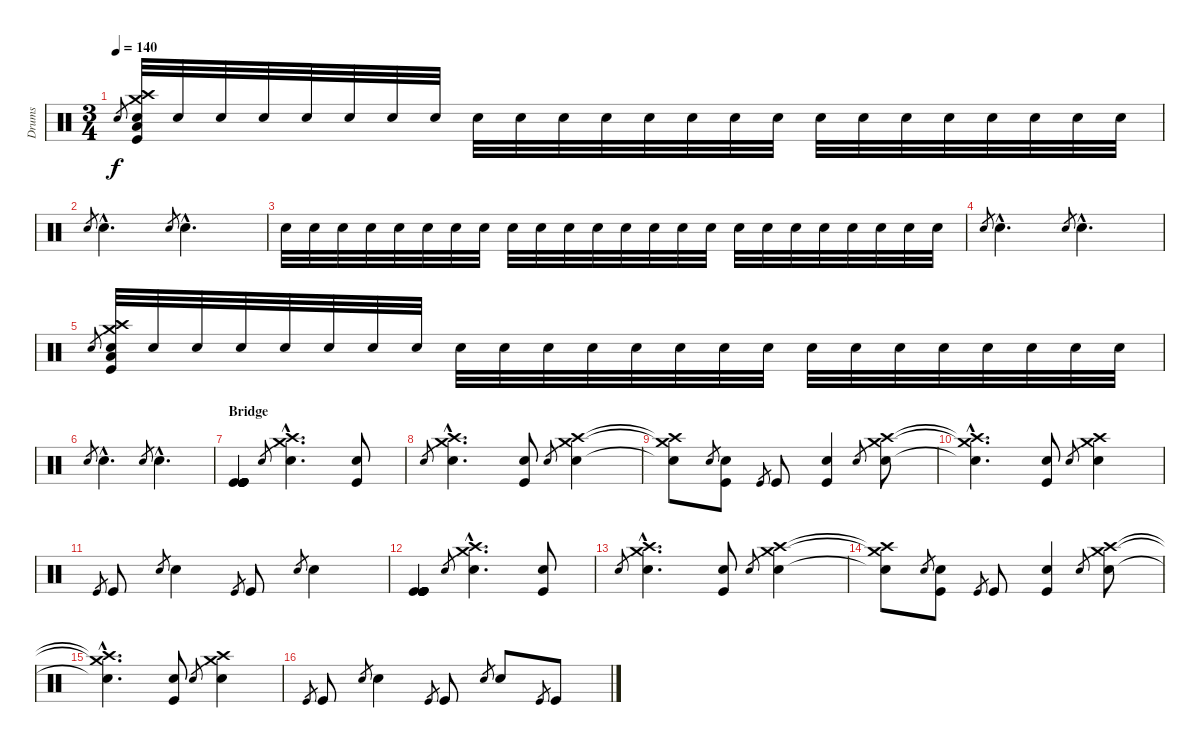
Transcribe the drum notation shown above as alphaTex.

\track ("Drums" "Drums") {instrument percussion}
\staff {score}
\articulation defaults
\ts (3 4)
\tempo 140
\clef neutral
\ks c "Snare (hit) 2".8{gr dy f}
("Crash high (hit)" "Crash medium (hit)" "Snare (hit) 2" "Low Floor Tom (hit)" "Kick (hit)").32 "Snare (hit) 2".32 "Snare (hit) 2".32 "Snare (hit) 2".32 "Snare (hit) 2".32 "Snare (hit) 2".32 "Snare (hit) 2".32 "Snare (hit) 2".32 "Snare (hit) 2".32 "Snare (hit) 2".32 "Snare (hit) 2".32 "Snare (hit) 2".32 "Snare (hit) 2".32 "Snare (hit) 2".32 "Snare (hit) 2".32 "Snare (hit) 2".32 "Snare (hit) 2".32 "Snare (hit) 2".32 "Snare (hit) 2".32 "Snare (hit) 2".32 "Snare (hit) 2".32 "Snare (hit) 2".32 "Snare (hit) 2".32 "Snare (hit) 2".32 |
"Snare (hit) 2".8{gr} "Snare (hit) 2"{hac}.4{d} "Snare (hit) 2".8{gr} "Snare (hit) 2"{hac}.4{d} |
"Snare (hit) 2".32 "Snare (hit) 2".32 "Snare (hit) 2".32 "Snare (hit) 2".32 "Snare (hit) 2".32 "Snare (hit) 2".32 "Snare (hit) 2".32 "Snare (hit) 2".32 "Snare (hit) 2".32 "Snare (hit) 2".32 "Snare (hit) 2".32 "Snare (hit) 2".32 "Snare (hit) 2".32 "Snare (hit) 2".32 "Snare (hit) 2".32 "Snare (hit) 2".32 "Snare (hit) 2".32 "Snare (hit) 2".32 "Snare (hit) 2".32 "Snare (hit) 2".32 "Snare (hit) 2".32 "Snare (hit) 2".32 "Snare (hit) 2".32 "Snare (hit) 2".32 |
"Snare (hit) 2".8{gr} "Snare (hit) 2"{hac}.4{d} "Snare (hit) 2".8{gr} "Snare (hit) 2"{hac}.4{d} |
"Snare (hit) 2".8{gr} ("Crash high (hit)" "Crash medium (hit)" "Snare (hit) 2" "Low Floor Tom (hit)" "Kick (hit)").32 "Snare (hit) 2".32 "Snare (hit) 2".32 "Snare (hit) 2".32 "Snare (hit) 2".32 "Snare (hit) 2".32 "Snare (hit) 2".32 "Snare (hit) 2".32 "Snare (hit) 2".32 "Snare (hit) 2".32 "Snare (hit) 2".32 "Snare (hit) 2".32 "Snare (hit) 2".32 "Snare (hit) 2".32 "Snare (hit) 2".32 "Snare (hit) 2".32 "Snare (hit) 2".32 "Snare (hit) 2".32 "Snare (hit) 2".32 "Snare (hit) 2".32 "Snare (hit) 2".32 "Snare (hit) 2".32 "Snare (hit) 2".32 "Snare (hit) 2".32 |
"Snare (hit) 2".8{gr} "Snare (hit) 2"{hac}.4{d} "Snare (hit) 2".8{gr} "Snare (hit) 2"{hac}.4{d} |
\section ("" "Bridge")
("Kick (hit)" "Kick (hit)" "Kick (hit)" "Kick (hit)" "Kick (hit)" "Kick (hit)").4{volume 16} "Snare (hit) 2".8{gr} ("Crash high (hit)"{hac} "Crash medium (hit)"{hac} "Snare (hit) 2"{hac}).4{d} ("Snare (hit) 2" "Kick (hit)").8 |
"Snare (hit) 2".8{gr} ("Crash high (hit)"{hac} "Crash medium (hit)"{hac} "Snare (hit) 2"{hac}).4{d} ("Snare (hit) 2" "Kick (hit)").8 "Snare (hit) 2".8{gr} ("Crash high (hit)" "Crash medium (hit)" "Snare (hit) 2").4 |
("Crash high (hit)"{t} "Crash medium (hit)"{t} "Snare (hit) 2"{t}).8 "Snare (hit) 2".8{gr} ("Snare (hit) 2" "Kick (hit)").8 "Kick (hit)".8{gr} "Kick (hit)".8 ("Snare (hit) 2" "Kick (hit)").4 "Snare (hit) 2".8{gr} ("Crash high (hit)" "Crash medium (hit)" "Snare (hit) 2").8 |
("Crash high (hit)"{hac t} "Crash medium (hit)"{hac t} "Snare (hit) 2"{hac t}).4{d} ("Snare (hit) 2" "Kick (hit)").8 "Snare (hit) 2".8{gr} ("Crash high (hit)" "Crash medium (hit)" "Snare (hit) 2").4 |
"Kick (hit)".8{gr} "Kick (hit)".8 "Snare (hit) 2".8{gr} "Snare (hit) 2".4 "Kick (hit)".8{gr} "Kick (hit)".8 "Snare (hit) 2".8{gr} "Snare (hit) 2".4 |
("Kick (hit)" "Kick (hit)" "Kick (hit)" "Kick (hit)" "Kick (hit)" "Kick (hit)").4{volume 16} "Snare (hit) 2".8{gr} ("Crash high (hit)"{hac} "Crash medium (hit)"{hac} "Snare (hit) 2"{hac}).4{d} ("Snare (hit) 2" "Kick (hit)").8 |
"Snare (hit) 2".8{gr} ("Crash high (hit)"{hac} "Crash medium (hit)"{hac} "Snare (hit) 2"{hac}).4{d} ("Snare (hit) 2" "Kick (hit)").8 "Snare (hit) 2".8{gr} ("Crash high (hit)" "Crash medium (hit)" "Snare (hit) 2").4 |
("Crash high (hit)"{t} "Crash medium (hit)"{t} "Snare (hit) 2"{t}).8 "Snare (hit) 2".8{gr} ("Snare (hit) 2" "Kick (hit)").8 "Kick (hit)".8{gr} "Kick (hit)".8 ("Snare (hit) 2" "Kick (hit)").4 "Snare (hit) 2".8{gr} ("Crash high (hit)" "Crash medium (hit)" "Snare (hit) 2").8 |
("Crash high (hit)"{hac t} "Crash medium (hit)"{hac t} "Snare (hit) 2"{hac t}).4{d} ("Snare (hit) 2" "Kick (hit)").8 "Snare (hit) 2".8{gr} ("Crash high (hit)" "Crash medium (hit)" "Snare (hit) 2").4 |
"Kick (hit)".8{gr} "Kick (hit)".8 "Snare (hit) 2".8{gr} "Snare (hit) 2".4 "Kick (hit)".8{gr} "Kick (hit)".8 "Snare (hit) 2".8{gr} "Snare (hit) 2".8 "Kick (hit)".8{gr} "Kick (hit)".8
